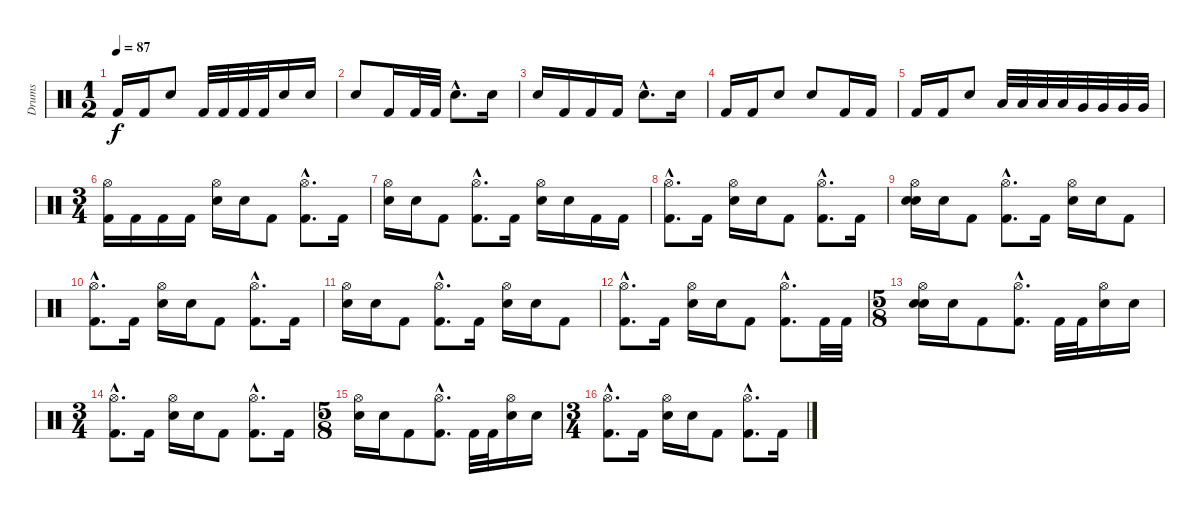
\track ("Drums" "Drums") {instrument percussion}
\staff {score}
\articulation defaults
\ts (1 2)
\tempo 87
\clef neutral
\ks c "Kick (hit) 2".16{dy f} "Kick (hit) 2".16 "Electric Snare (hit)".8 "Kick (hit) 2".32 "Kick (hit) 2".32 "Kick (hit) 2".32 "Kick (hit) 2".32 "Snare (hit) 2".16 "Electric Snare (hit)".16
|
"Snare (hit) 2".8 "Kick (hit) 2".16 "Kick (hit) 2".32 "Kick (hit) 2".32 "Electric Snare (hit)"{hac}.8{d} "Electric Snare (hit)".16 |
"Snare (hit) 2".16 "Kick (hit) 2".16 "Kick (hit) 2".16 "Kick (hit) 2".16 "Electric Snare (hit)"{hac}.8{d} "Electric Snare (hit)".16 |
"Kick (hit) 2".16 "Kick (hit) 2".16 "Electric Snare (hit)".8 "Electric Snare (hit)".8 "Kick (hit) 2".16 "Kick (hit) 2".16 |
"Kick (hit) 2".16 "Kick (hit) 2".16 "Electric Snare (hit)".8 "Low Floor Tom (hit)".32 "Low Floor Tom (hit)".32 "Low Floor Tom (hit)".32 "Low Floor Tom (hit)".32 "Very Low Tom (hit)".32 "Very Low Tom (hit)".32 "Very Low Tom (hit)".32 "Very Low Tom (hit)".32 |
\ts (3 4)
("Hi-Hat (open)" "Kick (hit) 2").16 "Kick (hit) 2".16 "Kick (hit) 2".16 "Kick (hit) 2".16 ("Hi-Hat (open)" "Electric Snare (hit)").16 "Snare (hit) 2".16 "Kick (hit) 2".8 ("Hi-Hat (open)"{hac} "Kick (hit) 2"{hac}).8{d} "Kick (hit) 2".16 |
("Hi-Hat (open)" "Electric Snare (hit)").16 "Snare (hit) 2".16 "Kick (hit) 2".8 ("Hi-Hat (open)"{hac} "Kick (hit) 2"{hac}).8{d} "Kick (hit) 2".16 ("Hi-Hat (open)" "Electric Snare (hit)").16 "Snare (hit) 2".16 "Kick (hit) 2".16 "Kick (hit) 2".16 |
("Hi-Hat (open)"{hac} "Kick (hit) 2"{hac}).8{d} "Kick (hit) 2".16 ("Hi-Hat (open)" "Electric Snare (hit)").16 "Snare (hit) 2".16 "Kick (hit) 2".8 ("Hi-Hat (open)"{hac} "Kick (hit) 2"{hac}).8{d} "Kick (hit) 2".16 |
("Hi-Hat (open)" "Electric Snare (hit)" "Snare (hit)").16 "Snare (hit) 2".16 "Kick (hit) 2".8 ("Hi-Hat (open)"{hac} "Kick (hit) 2"{hac}).8{d} "Kick (hit) 2".16 ("Hi-Hat (open)" "Electric Snare (hit)").16 "Snare (hit) 2".16 "Kick (hit) 2".8 |
("Hi-Hat (open)"{hac} "Kick (hit) 2"{hac}).8{d} "Kick (hit) 2".16 ("Hi-Hat (open)" "Electric Snare (hit)").16 "Snare (hit) 2".16 "Kick (hit) 2".8 ("Hi-Hat (open)"{hac} "Kick (hit) 2"{hac}).8{d} "Kick (hit) 2".16 |
("Hi-Hat (open)" "Electric Snare (hit)").16 "Snare (hit) 2".16 "Kick (hit) 2".8 ("Hi-Hat (open)"{hac} "Kick (hit) 2"{hac}).8{d} "Kick (hit) 2".16 ("Hi-Hat (open)" "Electric Snare (hit)").16 "Snare (hit) 2".16 "Kick (hit) 2".8 |
("Hi-Hat (open)"{hac} "Kick (hit) 2"{hac}).8{d} "Kick (hit) 2".16 ("Hi-Hat (open)" "Electric Snare (hit)").16 "Snare (hit) 2".16 "Kick (hit) 2".8 ("Hi-Hat (open)"{hac} "Kick (hit) 2"{hac}).8{d} "Kick (hit) 2".32 "Kick (hit) 2".32 |
\ts (5 8)
("Hi-Hat (open)" "Electric Snare (hit)" "Snare (hit)").16 "Snare (hit) 2".16 "Kick (hit) 2".8 ("Hi-Hat (open)"{hac} "Kick (hit) 2"{hac}).8{d} "Kick (hit) 2".32 "Kick (hit) 2".32 ("Hi-Hat (open)" "Electric Snare (hit)").16 "Snare (hit) 2".16 |
\ts (3 4)
("Hi-Hat (open)"{hac} "Kick (hit) 2"{hac}).8{d} "Kick (hit) 2".16 ("Hi-Hat (open)" "Electric Snare (hit)").16 "Snare (hit) 2".16 "Kick (hit) 2".8 ("Hi-Hat (open)"{hac} "Kick (hit) 2"{hac}).8{d} "Kick (hit) 2".16 |
\ts (5 8)
("Hi-Hat (open)" "Electric Snare (hit)").16 "Snare (hit) 2".16 "Kick (hit) 2".8 ("Hi-Hat (open)"{hac} "Kick (hit) 2"{hac}).8{d} "Kick (hit) 2".32 "Kick (hit) 2".32 ("Hi-Hat (open)" "Electric Snare (hit)").16 "Snare (hit) 2".16 |
\ts (3 4)
("Hi-Hat (open)"{hac} "Kick (hit) 2"{hac}).8{d} "Kick (hit) 2".16 ("Hi-Hat (open)" "Electric Snare (hit)").16 "Snare (hit) 2".16 "Kick (hit) 2".8 ("Hi-Hat (open)"{hac} "Kick (hit) 2"{hac}).8{d} "Kick (hit) 2".16
